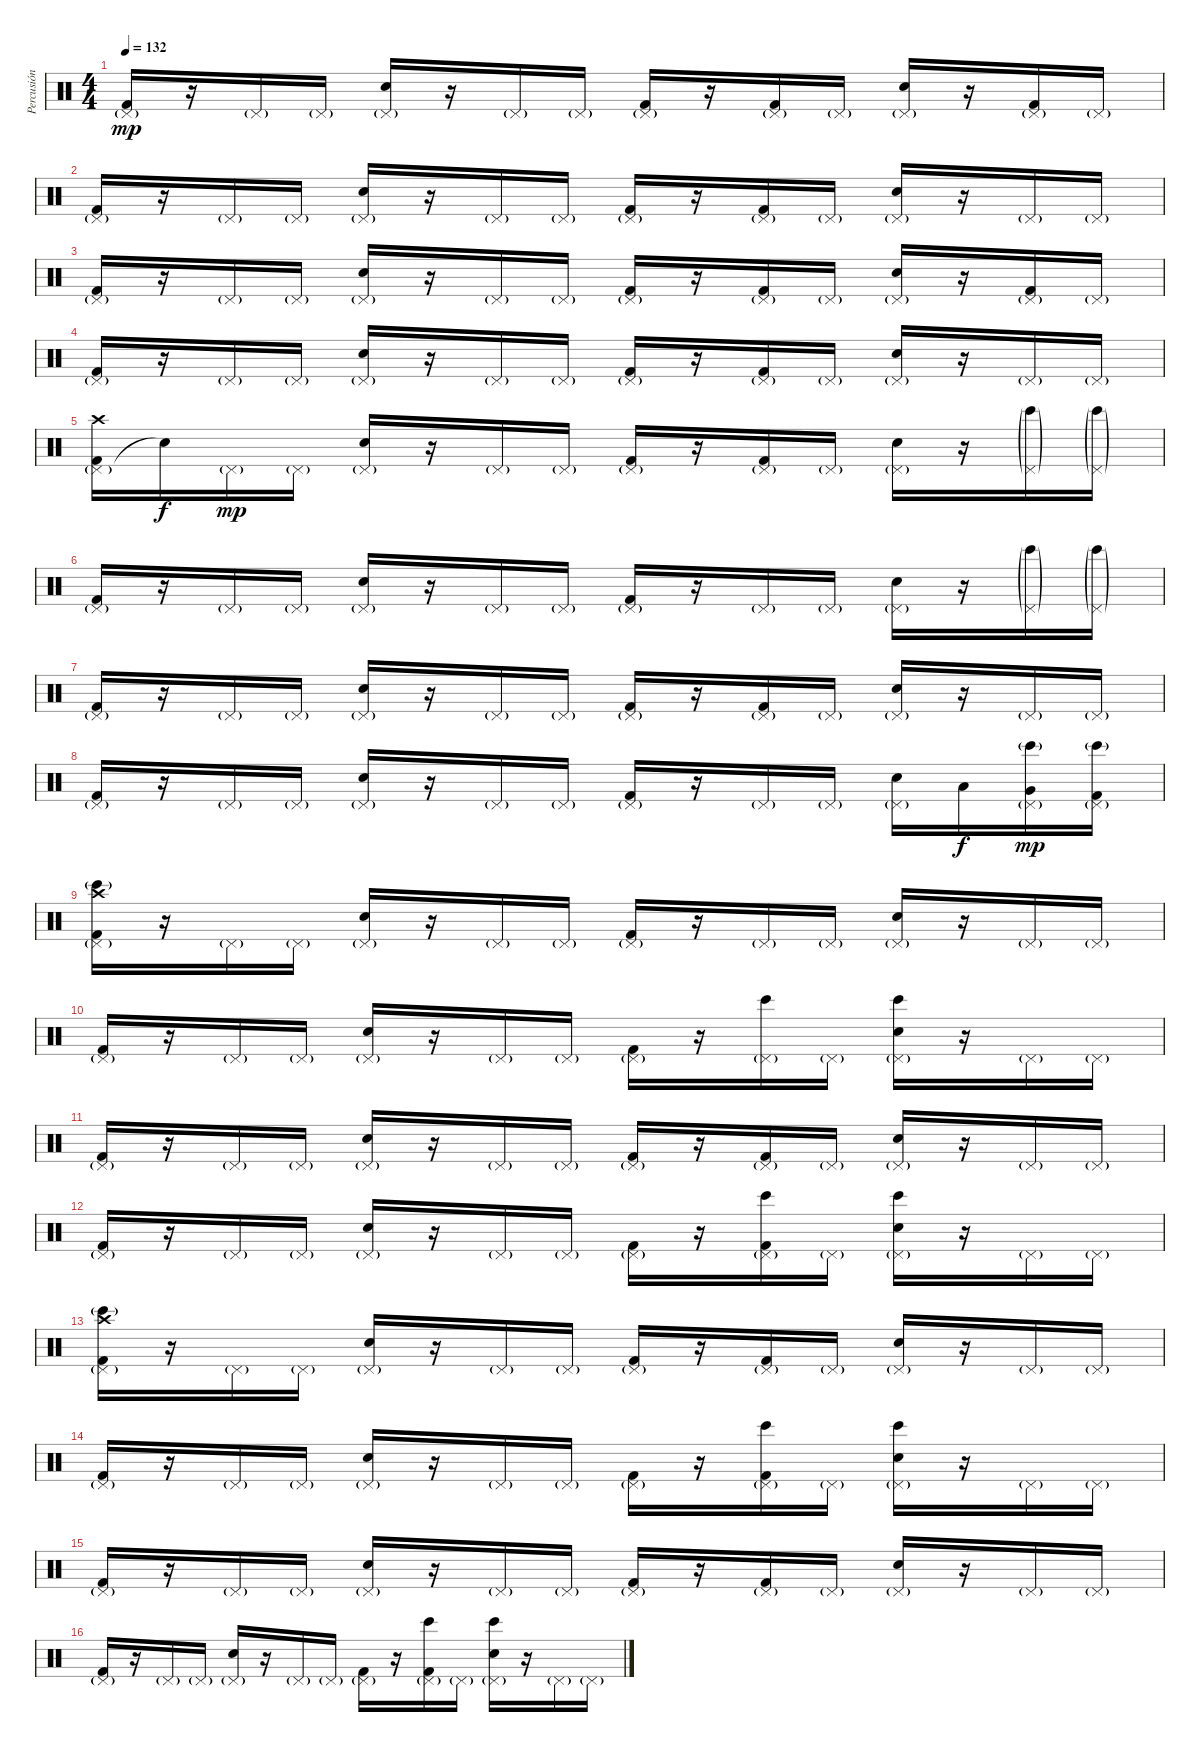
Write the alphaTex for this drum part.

\track ("Percusión" "Percusión") {instrument percussion}
\staff {score}
\articulation defaults
\ts (4 4)
\tempo 132
\clef neutral
\ks c
("Pedal Hi-Hat (hit)"{g} "Kick (hit) 2").16{dy mp} r.16 "Pedal Hi-Hat (hit)"{g}.16 "Pedal Hi-Hat (hit)"{g}.16 ("Pedal Hi-Hat (hit)"{g} "Electric Snare (hit)").16 r.16 "Pedal Hi-Hat (hit)"{g}.16 "Pedal Hi-Hat (hit)"{g}.16 ("Pedal Hi-Hat (hit)"{g} "Kick (hit) 2").16 r.16 ("Pedal Hi-Hat (hit)"{g} "Kick (hit) 2").16 "Pedal Hi-Hat (hit)"{g}.16 ("Pedal Hi-Hat (hit)"{g} "Electric Snare (hit)").16 r.16 ("Pedal Hi-Hat (hit)"{g} "Kick (hit) 2").16 "Pedal Hi-Hat (hit)"{g}.16 |
("Pedal Hi-Hat (hit)"{g} "Kick (hit) 2").16 r.16 "Pedal Hi-Hat (hit)"{g}.16 "Pedal Hi-Hat (hit)"{g}.16 ("Pedal Hi-Hat (hit)"{g} "Electric Snare (hit)").16 r.16 "Pedal Hi-Hat (hit)"{g}.16 "Pedal Hi-Hat (hit)"{g}.16 ("Pedal Hi-Hat (hit)"{g} "Kick (hit) 2").16 r.16 ("Pedal Hi-Hat (hit)"{g} "Kick (hit) 2").16 "Pedal Hi-Hat (hit)"{g}.16 ("Pedal Hi-Hat (hit)"{g} "Electric Snare (hit)").16 r.16 "Pedal Hi-Hat (hit)"{g}.16 "Pedal Hi-Hat (hit)"{g}.16 |
("Pedal Hi-Hat (hit)"{g} "Kick (hit) 2").16 r.16 "Pedal Hi-Hat (hit)"{g}.16 "Pedal Hi-Hat (hit)"{g}.16 ("Pedal Hi-Hat (hit)"{g} "Electric Snare (hit)").16 r.16 "Pedal Hi-Hat (hit)"{g}.16 "Pedal Hi-Hat (hit)"{g}.16 ("Pedal Hi-Hat (hit)"{g} "Kick (hit) 2").16 r.16 ("Pedal Hi-Hat (hit)"{g} "Kick (hit) 2").16 "Pedal Hi-Hat (hit)"{g}.16 ("Pedal Hi-Hat (hit)"{g} "Electric Snare (hit)").16 r.16 ("Pedal Hi-Hat (hit)"{g} "Kick (hit) 2").16 "Pedal Hi-Hat (hit)"{g}.16 |
("Pedal Hi-Hat (hit)"{g} "Kick (hit) 2").16 r.16 "Pedal Hi-Hat (hit)"{g}.16 "Pedal Hi-Hat (hit)"{g}.16 ("Pedal Hi-Hat (hit)"{g} "Electric Snare (hit)").16 r.16 "Pedal Hi-Hat (hit)"{g}.16 "Pedal Hi-Hat (hit)"{g}.16 ("Pedal Hi-Hat (hit)"{g} "Kick (hit) 2").16 r.16 ("Pedal Hi-Hat (hit)"{g} "Kick (hit) 2").16 "Pedal Hi-Hat (hit)"{g}.16 ("Pedal Hi-Hat (hit)"{g} "Electric Snare (hit)").16 r.16 "Pedal Hi-Hat (hit)"{g}.16 "Pedal Hi-Hat (hit)"{g}.16 |
("Pedal Hi-Hat (hit)"{g} "Kick (hit) 2" "Crash high (hit)").16 "Snare (hit)"{t}.16{dy f} "Pedal Hi-Hat (hit)"{g}.16{dy mp} "Pedal Hi-Hat (hit)"{g}.16 ("Pedal Hi-Hat (hit)"{g} "Electric Snare (hit)").16 r.16 "Pedal Hi-Hat (hit)"{g}.16 "Pedal Hi-Hat (hit)"{g}.16 ("Pedal Hi-Hat (hit)"{g} "Kick (hit) 2").16 r.16 ("Pedal Hi-Hat (hit)"{g} "Kick (hit) 2").16 "Pedal Hi-Hat (hit)"{g}.16 ("Pedal Hi-Hat (hit)"{g} "Electric Snare (hit)").16 r.16 ("Pedal Hi-Hat (hit)"{g} "Bongo High (hit)"{g}).16 ("Pedal Hi-Hat (hit)"{g} "Bongo High (hit)"{g}).16 |
("Pedal Hi-Hat (hit)"{g} "Kick (hit) 2").16 r.16 "Pedal Hi-Hat (hit)"{g}.16 "Pedal Hi-Hat (hit)"{g}.16 ("Pedal Hi-Hat (hit)"{g} "Electric Snare (hit)").16 r.16 "Pedal Hi-Hat (hit)"{g}.16 "Pedal Hi-Hat (hit)"{g}.16 ("Pedal Hi-Hat (hit)"{g} "Kick (hit) 2").16 r.16 "Pedal Hi-Hat (hit)"{g}.16 "Pedal Hi-Hat (hit)"{g}.16 ("Pedal Hi-Hat (hit)"{g} "Electric Snare (hit)").16 r.16 ("Pedal Hi-Hat (hit)"{g} "Bongo High (hit)"{g}).16 ("Pedal Hi-Hat (hit)"{g} "Bongo High (hit)"{g}).16 |
("Pedal Hi-Hat (hit)"{g} "Kick (hit) 2").16 r.16 "Pedal Hi-Hat (hit)"{g}.16 "Pedal Hi-Hat (hit)"{g}.16 ("Pedal Hi-Hat (hit)"{g} "Electric Snare (hit)").16 r.16 "Pedal Hi-Hat (hit)"{g}.16 "Pedal Hi-Hat (hit)"{g}.16 ("Pedal Hi-Hat (hit)"{g} "Kick (hit) 2").16 r.16 ("Pedal Hi-Hat (hit)"{g} "Kick (hit) 2").16 "Pedal Hi-Hat (hit)"{g}.16 ("Pedal Hi-Hat (hit)"{g} "Electric Snare (hit)").16 r.16 "Pedal Hi-Hat (hit)"{g}.16 "Pedal Hi-Hat (hit)"{g}.16 |
("Pedal Hi-Hat (hit)"{g} "Kick (hit) 2").16 r.16 "Pedal Hi-Hat (hit)"{g}.16 "Pedal Hi-Hat (hit)"{g}.16 ("Pedal Hi-Hat (hit)"{g} "Electric Snare (hit)").16 r.16 "Pedal Hi-Hat (hit)"{g}.16 "Pedal Hi-Hat (hit)"{g}.16 ("Pedal Hi-Hat (hit)"{g} "Kick (hit) 2").16 r.16 "Pedal Hi-Hat (hit)"{g}.16 "Pedal Hi-Hat (hit)"{g}.16 ("Pedal Hi-Hat (hit)"{g} "Electric Snare (hit)").16 "Low Tom (hit)".16{dy f} ("Pedal Hi-Hat (hit)"{g} "Very Low Tom (hit)" "Bongo High (hit)"{g}).16{dy mp} ("Pedal Hi-Hat (hit)"{g} "Kick (hit) 2" "Bongo High (hit)"{g}).16 |
("Pedal Hi-Hat (hit)"{g} "Kick (hit) 2" "Bongo High (hit)"{g} "Crash high (hit)").16 r.16 "Pedal Hi-Hat (hit)"{g}.16 "Pedal Hi-Hat (hit)"{g}.16 ("Pedal Hi-Hat (hit)"{g} "Electric Snare (hit)").16 r.16 "Pedal Hi-Hat (hit)"{g}.16 "Pedal Hi-Hat (hit)"{g}.16 ("Pedal Hi-Hat (hit)"{g} "Kick (hit) 2").16 r.16 "Pedal Hi-Hat (hit)"{g}.16 "Pedal Hi-Hat (hit)"{g}.16 ("Pedal Hi-Hat (hit)"{g} "Electric Snare (hit)").16 r.16 "Pedal Hi-Hat (hit)"{g}.16 "Pedal Hi-Hat (hit)"{g}.16 |
("Pedal Hi-Hat (hit)"{g} "Kick (hit) 2").16 r.16 "Pedal Hi-Hat (hit)"{g}.16 "Pedal Hi-Hat (hit)"{g}.16 ("Pedal Hi-Hat (hit)"{g} "Electric Snare (hit)").16 r.16 "Pedal Hi-Hat (hit)"{g}.16 "Pedal Hi-Hat (hit)"{g}.16 ("Pedal Hi-Hat (hit)"{g} "Kick (hit) 2").16 r.16 ("Pedal Hi-Hat (hit)"{g} "Bongo High (hit)").16 "Pedal Hi-Hat (hit)"{g}.16 ("Pedal Hi-Hat (hit)"{g} "Electric Snare (hit)" "Bongo High (hit)").16 r.16 "Pedal Hi-Hat (hit)"{g}.16 "Pedal Hi-Hat (hit)"{g}.16 |
("Pedal Hi-Hat (hit)"{g} "Kick (hit) 2").16 r.16 "Pedal Hi-Hat (hit)"{g}.16 "Pedal Hi-Hat (hit)"{g}.16 ("Pedal Hi-Hat (hit)"{g} "Electric Snare (hit)").16 r.16 "Pedal Hi-Hat (hit)"{g}.16 "Pedal Hi-Hat (hit)"{g}.16 ("Pedal Hi-Hat (hit)"{g} "Kick (hit) 2").16 r.16 ("Pedal Hi-Hat (hit)"{g} "Kick (hit) 2").16 "Pedal Hi-Hat (hit)"{g}.16 ("Pedal Hi-Hat (hit)"{g} "Electric Snare (hit)").16 r.16 "Pedal Hi-Hat (hit)"{g}.16 "Pedal Hi-Hat (hit)"{g}.16 |
("Pedal Hi-Hat (hit)"{g} "Kick (hit) 2").16 r.16 "Pedal Hi-Hat (hit)"{g}.16 "Pedal Hi-Hat (hit)"{g}.16 ("Pedal Hi-Hat (hit)"{g} "Electric Snare (hit)").16 r.16 "Pedal Hi-Hat (hit)"{g}.16 "Pedal Hi-Hat (hit)"{g}.16 ("Pedal Hi-Hat (hit)"{g} "Kick (hit) 2").16 r.16 ("Pedal Hi-Hat (hit)"{g} "Kick (hit) 2" "Bongo High (hit)").16 "Pedal Hi-Hat (hit)"{g}.16 ("Pedal Hi-Hat (hit)"{g} "Electric Snare (hit)" "Bongo High (hit)").16 r.16 "Pedal Hi-Hat (hit)"{g}.16 "Pedal Hi-Hat (hit)"{g}.16 |
("Pedal Hi-Hat (hit)"{g} "Kick (hit) 2" "Bongo High (hit)"{g} "Crash high (hit)").16 r.16 "Pedal Hi-Hat (hit)"{g}.16 "Pedal Hi-Hat (hit)"{g}.16 ("Pedal Hi-Hat (hit)"{g} "Electric Snare (hit)").16 r.16 "Pedal Hi-Hat (hit)"{g}.16 "Pedal Hi-Hat (hit)"{g}.16 ("Pedal Hi-Hat (hit)"{g} "Kick (hit) 2").16 r.16 ("Pedal Hi-Hat (hit)"{g} "Kick (hit) 2").16 "Pedal Hi-Hat (hit)"{g}.16 ("Pedal Hi-Hat (hit)"{g} "Electric Snare (hit)").16 r.16 "Pedal Hi-Hat (hit)"{g}.16 "Pedal Hi-Hat (hit)"{g}.16 |
("Pedal Hi-Hat (hit)"{g} "Kick (hit) 2").16 r.16 "Pedal Hi-Hat (hit)"{g}.16 "Pedal Hi-Hat (hit)"{g}.16 ("Pedal Hi-Hat (hit)"{g} "Electric Snare (hit)").16 r.16 "Pedal Hi-Hat (hit)"{g}.16 "Pedal Hi-Hat (hit)"{g}.16 ("Pedal Hi-Hat (hit)"{g} "Kick (hit) 2").16 r.16 ("Pedal Hi-Hat (hit)"{g} "Kick (hit) 2" "Bongo High (hit)").16 "Pedal Hi-Hat (hit)"{g}.16 ("Pedal Hi-Hat (hit)"{g} "Electric Snare (hit)" "Bongo High (hit)").16 r.16 "Pedal Hi-Hat (hit)"{g}.16 "Pedal Hi-Hat (hit)"{g}.16 |
("Pedal Hi-Hat (hit)"{g} "Kick (hit) 2").16 r.16 "Pedal Hi-Hat (hit)"{g}.16 "Pedal Hi-Hat (hit)"{g}.16 ("Pedal Hi-Hat (hit)"{g} "Electric Snare (hit)").16 r.16 "Pedal Hi-Hat (hit)"{g}.16 "Pedal Hi-Hat (hit)"{g}.16 ("Pedal Hi-Hat (hit)"{g} "Kick (hit) 2").16 r.16 ("Pedal Hi-Hat (hit)"{g} "Kick (hit) 2").16 "Pedal Hi-Hat (hit)"{g}.16 ("Pedal Hi-Hat (hit)"{g} "Electric Snare (hit)").16 r.16 "Pedal Hi-Hat (hit)"{g}.16 "Pedal Hi-Hat (hit)"{g}.16 |
("Pedal Hi-Hat (hit)"{g} "Kick (hit) 2").16 r.16 "Pedal Hi-Hat (hit)"{g}.16 "Pedal Hi-Hat (hit)"{g}.16 ("Pedal Hi-Hat (hit)"{g} "Electric Snare (hit)").16 r.16 "Pedal Hi-Hat (hit)"{g}.16 "Pedal Hi-Hat (hit)"{g}.16 ("Pedal Hi-Hat (hit)"{g} "Kick (hit) 2").16 r.16 ("Pedal Hi-Hat (hit)"{g} "Kick (hit) 2" "Bongo High (hit)").16 "Pedal Hi-Hat (hit)"{g}.16 ("Pedal Hi-Hat (hit)"{g} "Electric Snare (hit)" "Bongo High (hit)").16 r.16 "Pedal Hi-Hat (hit)"{g}.16 "Pedal Hi-Hat (hit)"{g}.16
